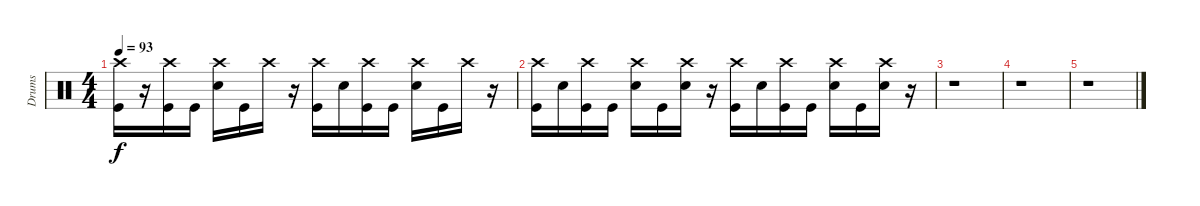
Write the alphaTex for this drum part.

\track ("Drums" "Drums") {instrument percussion}
\staff {score}
\articulation defaults
\ts (4 4)
\tempo 93
\clef neutral
\ks c
("Crash high (hit)" "Kick (hit)").16{dy f} r.16 ("Crash high (hit)" "Kick (hit)").16 "Kick (hit)".16 ("Crash high (hit)" "Electric Snare (hit)").16 "Kick (hit)".16 "Crash high (hit)".16 r.16 ("Crash high (hit)" "Kick (hit)").16 "Electric Snare (hit)".16 ("Crash high (hit)" "Kick (hit)").16 "Kick (hit)".16 ("Crash high (hit)" "Electric Snare (hit)").16 "Kick (hit)".16 "Crash high (hit)".16 r.16 |
("Crash high (hit)" "Kick (hit)").16 "Electric Snare (hit)".16 ("Crash high (hit)" "Kick (hit)").16 "Kick (hit)".16 ("Crash high (hit)" "Electric Snare (hit)").16 "Kick (hit)".16 ("Crash high (hit)" "Electric Snare (hit)").16 r.16 ("Crash high (hit)" "Kick (hit)").16 "Electric Snare (hit)".16 ("Crash high (hit)" "Kick (hit)").16 "Kick (hit)".16 ("Crash high (hit)" "Electric Snare (hit)").16 "Kick (hit)".16 ("Crash high (hit)" "Electric Snare (hit)").16 r.16 |
r.1 |
r.1 |
r.1
